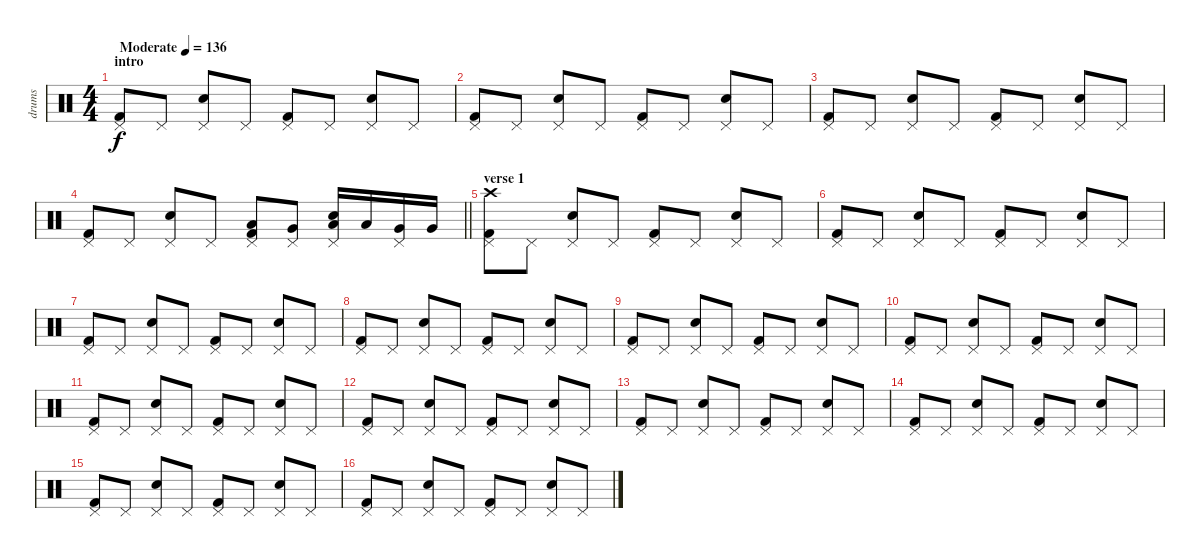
\track ("drums" "drums") {instrument percussion}
\staff {score}
\articulation defaults
\ts (4 4)
\section ("" "intro")
\tempo (136 "Moderate")
\clef neutral
\ks c
("Kick (hit) 2" "Pedal Hi-Hat (hit)").8{dy f} "Pedal Hi-Hat (hit)".8 ("Electric Snare (hit)" "Pedal Hi-Hat (hit)").8 "Pedal Hi-Hat (hit)".8 ("Kick (hit) 2" "Pedal Hi-Hat (hit)").8 "Pedal Hi-Hat (hit)".8 ("Electric Snare (hit)" "Pedal Hi-Hat (hit)").8 "Pedal Hi-Hat (hit)".8 |
("Kick (hit) 2" "Pedal Hi-Hat (hit)").8 "Pedal Hi-Hat (hit)".8 ("Electric Snare (hit)" "Pedal Hi-Hat (hit)").8 "Pedal Hi-Hat (hit)".8 ("Kick (hit) 2" "Pedal Hi-Hat (hit)").8 "Pedal Hi-Hat (hit)".8 ("Electric Snare (hit)" "Pedal Hi-Hat (hit)").8 "Pedal Hi-Hat (hit)".8 |
("Kick (hit) 2" "Pedal Hi-Hat (hit)").8 "Pedal Hi-Hat (hit)".8 ("Electric Snare (hit)" "Pedal Hi-Hat (hit)").8 "Pedal Hi-Hat (hit)".8 ("Kick (hit) 2" "Pedal Hi-Hat (hit)").8 "Pedal Hi-Hat (hit)".8 ("Electric Snare (hit)" "Pedal Hi-Hat (hit)").8 "Pedal Hi-Hat (hit)".8 |
\barLineRight lightlight
("Kick (hit) 2" "Pedal Hi-Hat (hit)").8 "Pedal Hi-Hat (hit)".8 ("Electric Snare (hit)" "Pedal Hi-Hat (hit)").8 "Pedal Hi-Hat (hit)".8 ("Kick (hit) 2" "Pedal Hi-Hat (hit)" "Low Tom (hit)").8 ("Pedal Hi-Hat (hit)" "Very Low Tom (hit)").8 ("Electric Snare (hit)" "Pedal Hi-Hat (hit)" "Low Tom (hit)").16 "Low Tom (hit)".16 ("Pedal Hi-Hat (hit)" "Very Low Tom (hit)").16 "Very Low Tom (hit)".16 |
\section ("" "verse 1")
("Kick (hit) 2" "Pedal Hi-Hat (hit)" "Crash high (hit)").8 "Pedal Hi-Hat (hit)".8 ("Electric Snare (hit)" "Pedal Hi-Hat (hit)").8 "Pedal Hi-Hat (hit)".8 ("Kick (hit) 2" "Pedal Hi-Hat (hit)").8 "Pedal Hi-Hat (hit)".8 ("Electric Snare (hit)" "Pedal Hi-Hat (hit)").8 "Pedal Hi-Hat (hit)".8 |
("Kick (hit) 2" "Pedal Hi-Hat (hit)").8 "Pedal Hi-Hat (hit)".8 ("Electric Snare (hit)" "Pedal Hi-Hat (hit)").8 "Pedal Hi-Hat (hit)".8 ("Kick (hit) 2" "Pedal Hi-Hat (hit)").8 "Pedal Hi-Hat (hit)".8 ("Electric Snare (hit)" "Pedal Hi-Hat (hit)").8 "Pedal Hi-Hat (hit)".8 |
("Kick (hit) 2" "Pedal Hi-Hat (hit)").8 "Pedal Hi-Hat (hit)".8 ("Electric Snare (hit)" "Pedal Hi-Hat (hit)").8 "Pedal Hi-Hat (hit)".8 ("Kick (hit) 2" "Pedal Hi-Hat (hit)").8 "Pedal Hi-Hat (hit)".8 ("Electric Snare (hit)" "Pedal Hi-Hat (hit)").8 "Pedal Hi-Hat (hit)".8 |
("Kick (hit) 2" "Pedal Hi-Hat (hit)").8 "Pedal Hi-Hat (hit)".8 ("Electric Snare (hit)" "Pedal Hi-Hat (hit)").8 "Pedal Hi-Hat (hit)".8 ("Kick (hit) 2" "Pedal Hi-Hat (hit)").8 "Pedal Hi-Hat (hit)".8 ("Electric Snare (hit)" "Pedal Hi-Hat (hit)").8 "Pedal Hi-Hat (hit)".8 |
("Kick (hit) 2" "Pedal Hi-Hat (hit)").8 "Pedal Hi-Hat (hit)".8 ("Electric Snare (hit)" "Pedal Hi-Hat (hit)").8 "Pedal Hi-Hat (hit)".8 ("Kick (hit) 2" "Pedal Hi-Hat (hit)").8 "Pedal Hi-Hat (hit)".8 ("Electric Snare (hit)" "Pedal Hi-Hat (hit)").8 "Pedal Hi-Hat (hit)".8 |
("Kick (hit) 2" "Pedal Hi-Hat (hit)").8 "Pedal Hi-Hat (hit)".8 ("Electric Snare (hit)" "Pedal Hi-Hat (hit)").8 "Pedal Hi-Hat (hit)".8 ("Kick (hit) 2" "Pedal Hi-Hat (hit)").8 "Pedal Hi-Hat (hit)".8 ("Electric Snare (hit)" "Pedal Hi-Hat (hit)").8 "Pedal Hi-Hat (hit)".8 |
("Kick (hit) 2" "Pedal Hi-Hat (hit)").8 "Pedal Hi-Hat (hit)".8 ("Electric Snare (hit)" "Pedal Hi-Hat (hit)").8 "Pedal Hi-Hat (hit)".8 ("Kick (hit) 2" "Pedal Hi-Hat (hit)").8 "Pedal Hi-Hat (hit)".8 ("Electric Snare (hit)" "Pedal Hi-Hat (hit)").8 "Pedal Hi-Hat (hit)".8 |
("Kick (hit) 2" "Pedal Hi-Hat (hit)").8 "Pedal Hi-Hat (hit)".8 ("Electric Snare (hit)" "Pedal Hi-Hat (hit)").8 "Pedal Hi-Hat (hit)".8 ("Kick (hit) 2" "Pedal Hi-Hat (hit)").8 "Pedal Hi-Hat (hit)".8 ("Electric Snare (hit)" "Pedal Hi-Hat (hit)").8 "Pedal Hi-Hat (hit)".8 |
("Kick (hit) 2" "Pedal Hi-Hat (hit)").8 "Pedal Hi-Hat (hit)".8 ("Electric Snare (hit)" "Pedal Hi-Hat (hit)").8 "Pedal Hi-Hat (hit)".8 ("Kick (hit) 2" "Pedal Hi-Hat (hit)").8 "Pedal Hi-Hat (hit)".8 ("Electric Snare (hit)" "Pedal Hi-Hat (hit)").8 "Pedal Hi-Hat (hit)".8 |
("Kick (hit) 2" "Pedal Hi-Hat (hit)").8 "Pedal Hi-Hat (hit)".8 ("Electric Snare (hit)" "Pedal Hi-Hat (hit)").8 "Pedal Hi-Hat (hit)".8 ("Kick (hit) 2" "Pedal Hi-Hat (hit)").8 "Pedal Hi-Hat (hit)".8 ("Electric Snare (hit)" "Pedal Hi-Hat (hit)").8 "Pedal Hi-Hat (hit)".8 |
("Kick (hit) 2" "Pedal Hi-Hat (hit)").8 "Pedal Hi-Hat (hit)".8 ("Electric Snare (hit)" "Pedal Hi-Hat (hit)").8 "Pedal Hi-Hat (hit)".8 ("Kick (hit) 2" "Pedal Hi-Hat (hit)").8 "Pedal Hi-Hat (hit)".8 ("Electric Snare (hit)" "Pedal Hi-Hat (hit)").8 "Pedal Hi-Hat (hit)".8 |
("Kick (hit) 2" "Pedal Hi-Hat (hit)").8 "Pedal Hi-Hat (hit)".8 ("Electric Snare (hit)" "Pedal Hi-Hat (hit)").8 "Pedal Hi-Hat (hit)".8 ("Kick (hit) 2" "Pedal Hi-Hat (hit)").8 "Pedal Hi-Hat (hit)".8 ("Electric Snare (hit)" "Pedal Hi-Hat (hit)").8 "Pedal Hi-Hat (hit)".8
